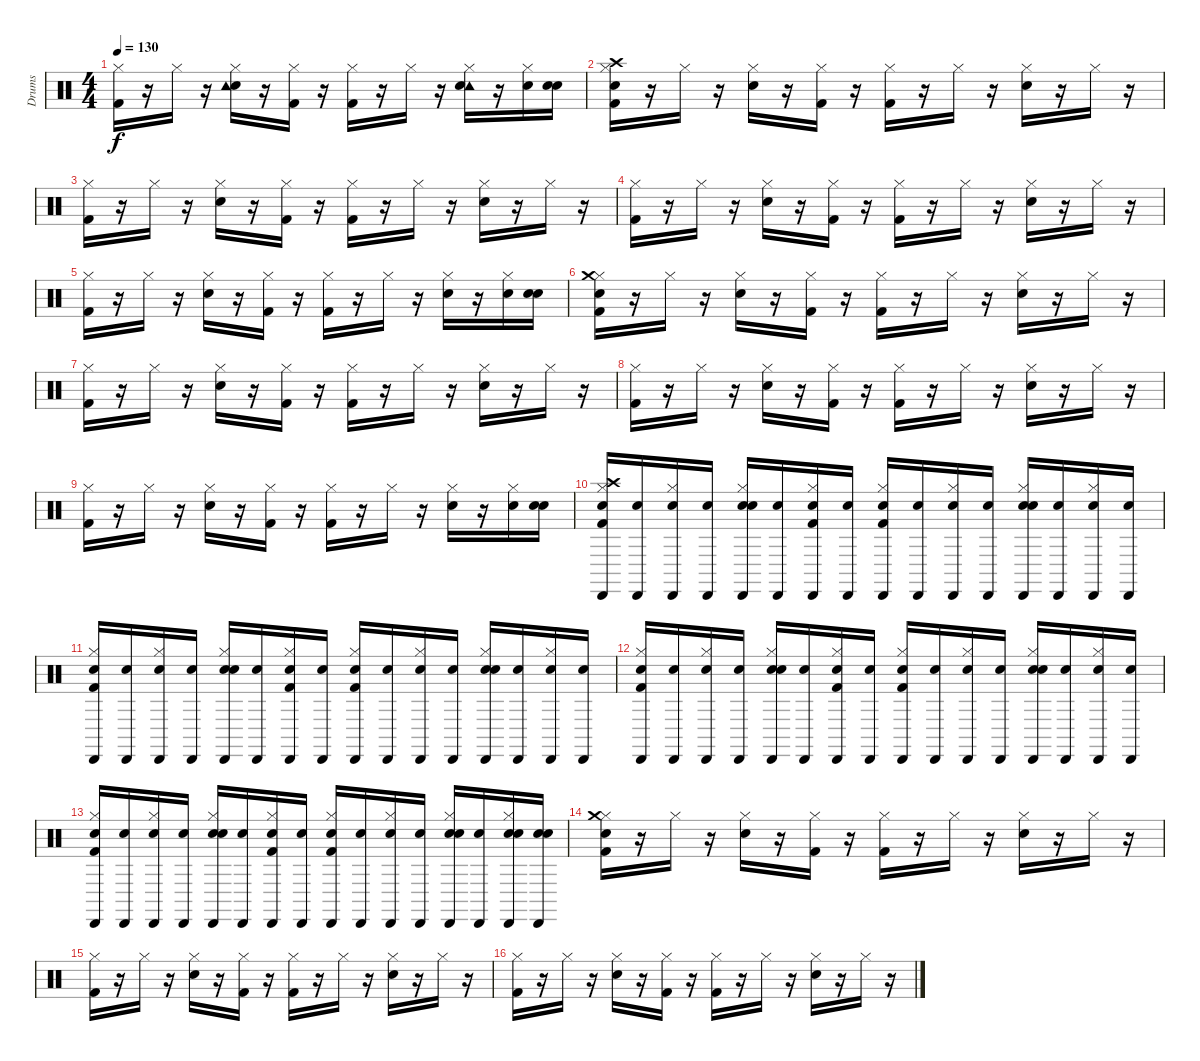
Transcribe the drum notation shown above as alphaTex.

\track ("Drums" "Drums") {instrument percussion}
\staff {score}
\articulation defaults
\ts (4 4)
\tempo 130
\clef neutral
\ks c
("Hi-Hat (closed)" "Kick (hit) 2").16{dy f} r.16 "Hi-Hat (closed)".16 r.16 ("Snare (hit) 2" "Hi-Hat (closed)" "Tambourine (hit)").16 r.16 ("Kick (hit) 2" "Hi-Hat (closed)").16 r.16 ("Hi-Hat (closed)" "Kick (hit) 2").16 r.16 "Hi-Hat (closed)".16 r.16 ("Tambourine (hit)" "Snare (hit) 2" "Hi-Hat (closed)").16 r.16 ("Hi-Hat (closed)" "Snare (hit) 2").16 ("Snare (hit)" "Snare (hit) 2").16 |
("Snare (hit)" "Kick (hit) 2" "Hi-Hat (closed)" "Crash high (hit)").16 r.16 "Hi-Hat (closed)".16 r.16 ("Snare (hit) 2" "Hi-Hat (closed)").16 r.16 ("Hi-Hat (closed)" "Kick (hit) 2").16 r.16 ("Kick (hit) 2" "Hi-Hat (closed)").16 r.16 "Hi-Hat (closed)".16 r.16 ("Hi-Hat (closed)" "Snare (hit) 2").16 r.16 "Hi-Hat (closed)".16 r.16 |
("Kick (hit) 2" "Hi-Hat (closed)").16 r.16 "Hi-Hat (closed)".16 r.16 ("Hi-Hat (closed)" "Snare (hit) 2").16 r.16 ("Hi-Hat (closed)" "Kick (hit) 2").16 r.16 ("Hi-Hat (closed)" "Kick (hit) 2").16 r.16 "Hi-Hat (closed)".16 r.16 ("Hi-Hat (closed)" "Snare (hit) 2").16 r.16 "Hi-Hat (closed)".16 r.16 |
("Kick (hit) 2" "Hi-Hat (closed)").16 r.16 "Hi-Hat (closed)".16 r.16 ("Hi-Hat (closed)" "Snare (hit) 2").16 r.16 ("Kick (hit) 2" "Hi-Hat (closed)").16 r.16 ("Hi-Hat (closed)" "Kick (hit) 2").16 r.16 "Hi-Hat (closed)".16 r.16 ("Hi-Hat (closed)" "Snare (hit) 2").16 r.16 "Hi-Hat (closed)".16 r.16 |
("Kick (hit) 2" "Hi-Hat (closed)").16 r.16 "Hi-Hat (closed)".16 r.16 ("Hi-Hat (closed)" "Snare (hit) 2").16 r.16 ("Kick (hit) 2" "Hi-Hat (closed)").16 r.16 ("Kick (hit) 2" "Hi-Hat (closed)").16 r.16 "Hi-Hat (closed)".16 r.16 ("Hi-Hat (closed)" "Snare (hit) 2").16 r.16 ("Snare (hit) 2" "Hi-Hat (closed)").16 ("Snare (hit)" "Snare (hit) 2").16 |
("Snare (hit)" "Hi-Hat (closed)" "Kick (hit) 2" "Crash medium (hit)").16 r.16 "Hi-Hat (closed)".16 r.16 ("Hi-Hat (closed)" "Snare (hit) 2").16 r.16 ("Hi-Hat (closed)" "Kick (hit) 2").16 r.16 ("Hi-Hat (closed)" "Kick (hit) 2").16 r.16 "Hi-Hat (closed)".16 r.16 ("Snare (hit) 2" "Hi-Hat (closed)").16 r.16 "Hi-Hat (closed)".16 r.16 |
("Hi-Hat (closed)" "Kick (hit) 2").16 r.16 "Hi-Hat (closed)".16 r.16 ("Hi-Hat (closed)" "Snare (hit) 2").16 r.16 ("Hi-Hat (closed)" "Kick (hit) 2").16 r.16 ("Kick (hit) 2" "Hi-Hat (closed)").16 r.16 "Hi-Hat (closed)".16 r.16 ("Hi-Hat (closed)" "Snare (hit) 2").16 r.16 "Hi-Hat (closed)".16 r.16 |
("Kick (hit) 2" "Hi-Hat (closed)").16 r.16 "Hi-Hat (closed)".16 r.16 ("Hi-Hat (closed)" "Snare (hit) 2").16 r.16 ("Hi-Hat (closed)" "Kick (hit) 2").16 r.16 ("Kick (hit) 2" "Hi-Hat (closed)").16 r.16 "Hi-Hat (closed)".16 r.16 ("Hi-Hat (closed)" "Snare (hit) 2").16 r.16 "Hi-Hat (closed)".16 r.16 |
("Hi-Hat (closed)" "Kick (hit) 2").16 r.16 "Hi-Hat (closed)".16 r.16 ("Hi-Hat (closed)" "Snare (hit) 2").16 r.16 ("Hi-Hat (closed)" "Kick (hit) 2").16 r.16 ("Hi-Hat (closed)" "Kick (hit) 2").16 r.16 "Hi-Hat (closed)".16 r.16 ("Hi-Hat (closed)" "Snare (hit) 2").16 r.16 ("Hi-Hat (closed)" "Snare (hit) 2").16 ("Snare (hit)" "Snare (hit) 2").16 |
("Snare (hit)" "Hi-Hat (closed)" "Kick (hit) 2" "Cabasa (hit)" "Crash high (hit)").16 ("Snare (hit)" "Cabasa (hit)").16 ("Snare (hit)" "Cabasa (hit)" "Hi-Hat (closed)").16 ("Snare (hit)" "Cabasa (hit)").16 ("Snare (hit)" "Cabasa (hit)" "Snare (hit) 2" "Hi-Hat (closed)").16 ("Snare (hit)" "Cabasa (hit)").16 ("Snare (hit)" "Kick (hit) 2" "Hi-Hat (closed)" "Cabasa (hit)").16 ("Snare (hit)" "Cabasa (hit)").16 ("Snare (hit)" "Hi-Hat (closed)" "Kick (hit) 2" "Cabasa (hit)").16 ("Snare (hit)" "Cabasa (hit)").16 ("Snare (hit)" "Cabasa (hit)" "Hi-Hat (closed)").16 ("Snare (hit)" "Cabasa (hit)").16 ("Snare (hit)" "Cabasa (hit)" "Hi-Hat (closed)" "Snare (hit) 2").16 ("Snare (hit)" "Cabasa (hit)").16 ("Snare (hit)" "Hi-Hat (closed)" "Cabasa (hit)").16 ("Snare (hit)" "Cabasa (hit)").16 |
("Snare (hit)" "Hi-Hat (closed)" "Kick (hit) 2" "Cabasa (hit)").16 ("Snare (hit)" "Cabasa (hit)").16 ("Snare (hit)" "Hi-Hat (closed)" "Cabasa (hit)").16 ("Snare (hit)" "Cabasa (hit)").16 ("Snare (hit)" "Hi-Hat (closed)" "Snare (hit) 2" "Cabasa (hit)").16 ("Snare (hit)" "Cabasa (hit)").16 ("Snare (hit)" "Kick (hit) 2" "Cabasa (hit)" "Hi-Hat (closed)").16 ("Snare (hit)" "Cabasa (hit)").16 ("Snare (hit)" "Hi-Hat (closed)" "Kick (hit) 2" "Cabasa (hit)").16 ("Snare (hit)" "Cabasa (hit)").16 ("Snare (hit)" "Hi-Hat (closed)" "Cabasa (hit)").16 ("Snare (hit)" "Cabasa (hit)").16 ("Snare (hit)" "Cabasa (hit)" "Hi-Hat (closed)" "Snare (hit) 2").16 ("Snare (hit)" "Cabasa (hit)").16 ("Snare (hit)" "Cabasa (hit)" "Hi-Hat (closed)").16 ("Snare (hit)" "Cabasa (hit)").16 |
("Snare (hit)" "Cabasa (hit)" "Kick (hit) 2" "Hi-Hat (closed)").16 ("Snare (hit)" "Cabasa (hit)").16 ("Snare (hit)" "Cabasa (hit)" "Hi-Hat (closed)").16 ("Snare (hit)" "Cabasa (hit)").16 ("Snare (hit)" "Hi-Hat (closed)" "Snare (hit) 2" "Cabasa (hit)").16 ("Snare (hit)" "Cabasa (hit)").16 ("Snare (hit)" "Kick (hit) 2" "Cabasa (hit)" "Hi-Hat (closed)").16 ("Snare (hit)" "Cabasa (hit)").16 ("Snare (hit)" "Cabasa (hit)" "Kick (hit) 2" "Hi-Hat (closed)").16 ("Snare (hit)" "Cabasa (hit)").16 ("Snare (hit)" "Cabasa (hit)" "Hi-Hat (closed)").16 ("Snare (hit)" "Cabasa (hit)").16 ("Snare (hit)" "Cabasa (hit)" "Snare (hit) 2" "Hi-Hat (closed)").16 ("Snare (hit)" "Cabasa (hit)").16 ("Snare (hit)" "Hi-Hat (closed)" "Cabasa (hit)").16 ("Snare (hit)" "Cabasa (hit)").16 |
("Snare (hit)" "Kick (hit) 2" "Cabasa (hit)" "Hi-Hat (closed)").16 ("Snare (hit)" "Cabasa (hit)").16 ("Snare (hit)" "Cabasa (hit)" "Hi-Hat (closed)").16 ("Snare (hit)" "Cabasa (hit)").16 ("Snare (hit)" "Hi-Hat (closed)" "Snare (hit) 2" "Cabasa (hit)").16 ("Snare (hit)" "Cabasa (hit)").16 ("Snare (hit)" "Kick (hit) 2" "Cabasa (hit)" "Hi-Hat (closed)").16 ("Snare (hit)" "Cabasa (hit)").16 ("Snare (hit)" "Hi-Hat (closed)" "Cabasa (hit)" "Kick (hit) 2").16 ("Snare (hit)" "Cabasa (hit)").16 ("Snare (hit)" "Hi-Hat (closed)" "Cabasa (hit)").16 ("Snare (hit)" "Cabasa (hit)").16 ("Snare (hit)" "Hi-Hat (closed)" "Snare (hit) 2" "Cabasa (hit)").16 ("Snare (hit)" "Cabasa (hit)").16 ("Snare (hit)" "Snare (hit) 2" "Hi-Hat (closed)" "Cabasa (hit)").16 ("Snare (hit)" "Snare (hit) 2" "Cabasa (hit)").16 |
("Snare (hit)" "Kick (hit) 2" "Hi-Hat (closed)" "Crash medium (hit)").16 r.16 "Hi-Hat (closed)".16 r.16 ("Hi-Hat (closed)" "Snare (hit) 2").16 r.16 ("Kick (hit) 2" "Hi-Hat (closed)").16 r.16 ("Kick (hit) 2" "Hi-Hat (closed)").16 r.16 "Hi-Hat (closed)".16 r.16 ("Snare (hit) 2" "Hi-Hat (closed)").16 r.16 "Hi-Hat (closed)".16 r.16 |
("Kick (hit) 2" "Hi-Hat (closed)").16 r.16 "Hi-Hat (closed)".16 r.16 ("Hi-Hat (closed)" "Snare (hit) 2").16 r.16 ("Kick (hit) 2" "Hi-Hat (closed)").16 r.16 ("Hi-Hat (closed)" "Kick (hit) 2").16 r.16 "Hi-Hat (closed)".16 r.16 ("Hi-Hat (closed)" "Snare (hit) 2").16 r.16 "Hi-Hat (closed)".16 r.16 |
("Hi-Hat (closed)" "Kick (hit) 2").16 r.16 "Hi-Hat (closed)".16 r.16 ("Snare (hit) 2" "Hi-Hat (closed)").16 r.16 ("Hi-Hat (closed)" "Kick (hit) 2").16 r.16 ("Hi-Hat (closed)" "Kick (hit) 2").16 r.16 "Hi-Hat (closed)".16 r.16 ("Snare (hit) 2" "Hi-Hat (closed)").16 r.16 "Hi-Hat (closed)".16 r.16
